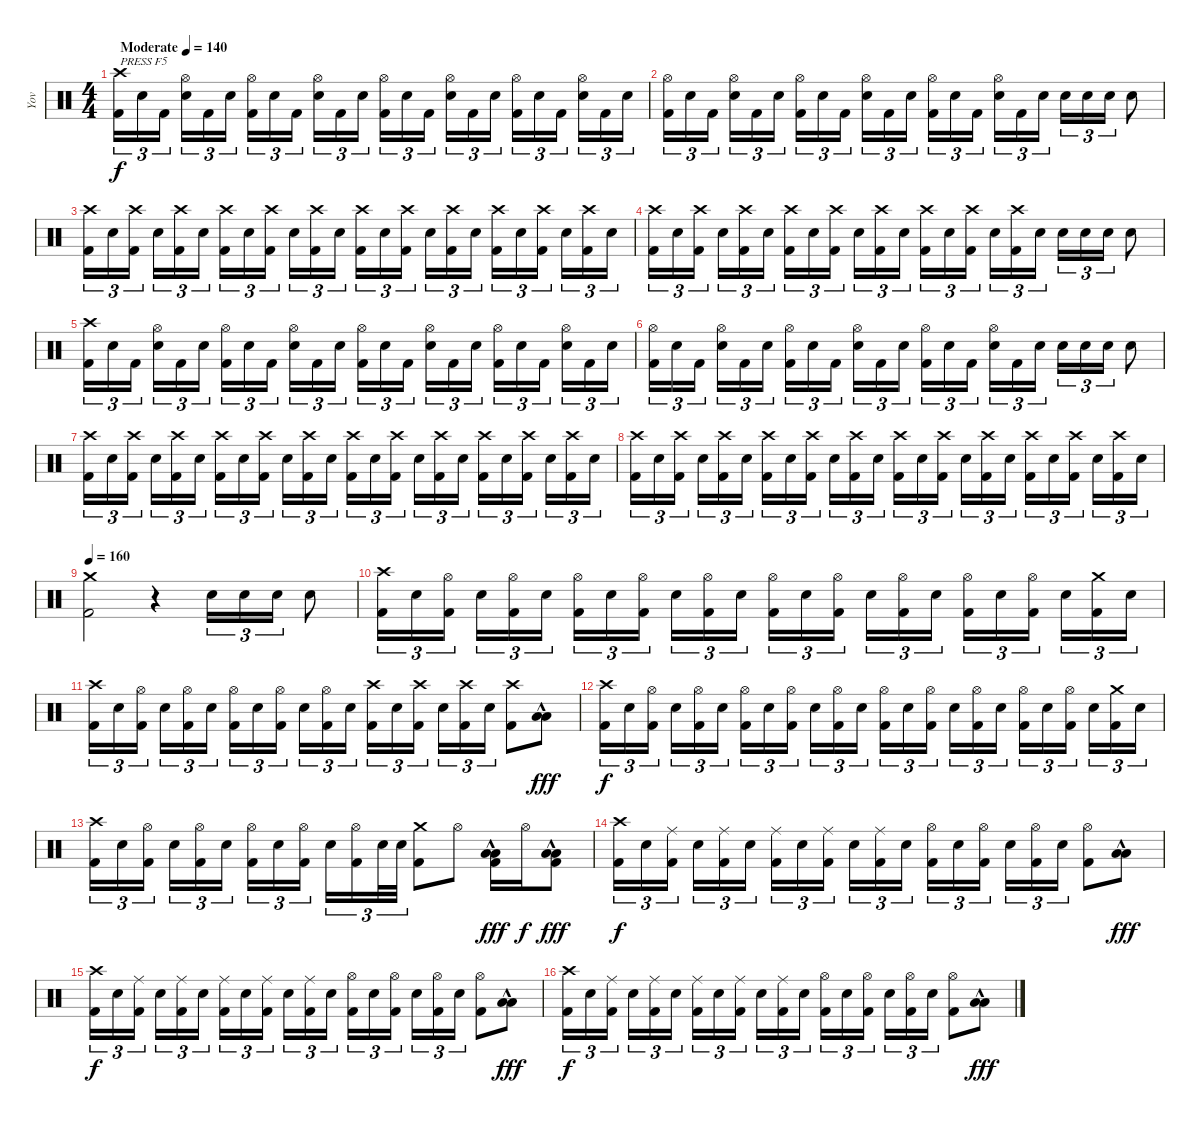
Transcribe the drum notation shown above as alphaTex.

\track ("Yov" "Yov") {instrument percussion}
\staff {score}
\articulation defaults
\ts (4 4)
\tempo (140 "Moderate")
\clef neutral
\ks c
("Crash high (hit)" "Kick (hit) 2").16{tu (3 2) txt "PRESS F5" dy f} "Electric Snare (hit)".16{tu (3 2)} "Kick (hit) 2".16{tu (3 2) beam splitsecondary} ("Hi-Hat (open)" "Electric Snare (hit)").16{tu (3 2)} "Kick (hit) 2".16{tu (3 2)} "Electric Snare (hit)".16{tu (3 2)} ("Hi-Hat (open)" "Kick (hit) 2").16{tu (3 2)} "Electric Snare (hit)".16{tu (3 2)} "Kick (hit) 2".16{tu (3 2) beam splitsecondary} ("Hi-Hat (open)" "Electric Snare (hit)").16{tu (3 2)} "Kick (hit) 2".16{tu (3 2)} "Electric Snare (hit)".16{tu (3 2)} ("Hi-Hat (open)" "Kick (hit) 2").16{tu (3 2)} "Electric Snare (hit)".16{tu (3 2)} "Kick (hit) 2".16{tu (3 2) beam splitsecondary} ("Hi-Hat (open)" "Electric Snare (hit)").16{tu (3 2)} "Kick (hit) 2".16{tu (3 2)} "Electric Snare (hit)".16{tu (3 2)} ("Hi-Hat (open)" "Kick (hit) 2").16{tu (3 2)} "Electric Snare (hit)".16{tu (3 2)} "Kick (hit) 2".16{tu (3 2) beam splitsecondary} ("Hi-Hat (open)" "Electric Snare (hit)").16{tu (3 2)} "Kick (hit) 2".16{tu (3 2)} "Electric Snare (hit)".16{tu (3 2)} |
("Hi-Hat (open)" "Kick (hit) 2").16{tu (3 2)} "Electric Snare (hit)".16{tu (3 2)} "Kick (hit) 2".16{tu (3 2) beam splitsecondary} ("Hi-Hat (open)" "Electric Snare (hit)").16{tu (3 2)} "Kick (hit) 2".16{tu (3 2)} "Electric Snare (hit)".16{tu (3 2)} ("Hi-Hat (open)" "Kick (hit) 2").16{tu (3 2)} "Electric Snare (hit)".16{tu (3 2)} "Kick (hit) 2".16{tu (3 2) beam splitsecondary} ("Hi-Hat (open)" "Electric Snare (hit)").16{tu (3 2)} "Kick (hit) 2".16{tu (3 2)} "Electric Snare (hit)".16{tu (3 2)} ("Hi-Hat (open)" "Kick (hit) 2").16{tu (3 2)} "Electric Snare (hit)".16{tu (3 2)} "Kick (hit) 2".16{tu (3 2) beam splitsecondary} ("Hi-Hat (open)" "Electric Snare (hit)").16{tu (3 2)} "Kick (hit) 2".16{tu (3 2)} "Electric Snare (hit)".16{tu (3 2)} "Electric Snare (hit)".16{tu (3 2)} "Electric Snare (hit)".16{tu (3 2)} "Electric Snare (hit)".16{tu (3 2)} "Electric Snare (hit)".8 |
("Crash high (hit)" "Kick (hit) 2").16{tu (3 2)} "Electric Snare (hit)".16{tu (3 2)} ("Crash high (hit)" "Kick (hit) 2").16{tu (3 2) beam splitsecondary} "Electric Snare (hit)".16{tu (3 2)} ("Crash high (hit)" "Kick (hit) 2").16{tu (3 2)} "Electric Snare (hit)".16{tu (3 2)} ("Crash high (hit)" "Kick (hit) 2").16{tu (3 2)} "Electric Snare (hit)".16{tu (3 2)} ("Crash high (hit)" "Kick (hit) 2").16{tu (3 2) beam splitsecondary} "Electric Snare (hit)".16{tu (3 2)} ("Crash high (hit)" "Kick (hit) 2").16{tu (3 2)} "Electric Snare (hit)".16{tu (3 2)} ("Crash high (hit)" "Kick (hit) 2").16{tu (3 2)} "Electric Snare (hit)".16{tu (3 2)} ("Crash high (hit)" "Kick (hit) 2").16{tu (3 2) beam splitsecondary} "Electric Snare (hit)".16{tu (3 2)} ("Crash high (hit)" "Kick (hit) 2").16{tu (3 2)} "Electric Snare (hit)".16{tu (3 2)} ("Crash high (hit)" "Kick (hit) 2").16{tu (3 2)} "Electric Snare (hit)".16{tu (3 2)} ("Crash high (hit)" "Kick (hit) 2").16{tu (3 2) beam splitsecondary} "Electric Snare (hit)".16{tu (3 2)} ("Crash high (hit)" "Kick (hit) 2").16{tu (3 2)} "Electric Snare (hit)".16{tu (3 2)} |
("Crash high (hit)" "Kick (hit) 2").16{tu (3 2)} "Electric Snare (hit)".16{tu (3 2)} ("Crash high (hit)" "Kick (hit) 2").16{tu (3 2) beam splitsecondary} "Electric Snare (hit)".16{tu (3 2)} ("Crash high (hit)" "Kick (hit) 2").16{tu (3 2)} "Electric Snare (hit)".16{tu (3 2)} ("Crash high (hit)" "Kick (hit) 2").16{tu (3 2)} "Electric Snare (hit)".16{tu (3 2)} ("Crash high (hit)" "Kick (hit) 2").16{tu (3 2) beam splitsecondary} "Electric Snare (hit)".16{tu (3 2)} ("Crash high (hit)" "Kick (hit) 2").16{tu (3 2)} "Electric Snare (hit)".16{tu (3 2)} ("Crash high (hit)" "Kick (hit) 2").16{tu (3 2)} "Electric Snare (hit)".16{tu (3 2)} ("Crash high (hit)" "Kick (hit) 2").16{tu (3 2) beam splitsecondary} "Electric Snare (hit)".16{tu (3 2)} ("Crash high (hit)" "Kick (hit) 2").16{tu (3 2)} "Electric Snare (hit)".16{tu (3 2)} "Electric Snare (hit)".16{tu (3 2)} "Electric Snare (hit)".16{tu (3 2)} "Electric Snare (hit)".16{tu (3 2)} "Electric Snare (hit)".8 |
("Crash high (hit)" "Kick (hit) 2").16{tu (3 2)} "Electric Snare (hit)".16{tu (3 2)} "Kick (hit) 2".16{tu (3 2) beam splitsecondary} ("Hi-Hat (open)" "Electric Snare (hit)").16{tu (3 2)} "Kick (hit) 2".16{tu (3 2)} "Electric Snare (hit)".16{tu (3 2)} ("Hi-Hat (open)" "Kick (hit) 2").16{tu (3 2)} "Electric Snare (hit)".16{tu (3 2)} "Kick (hit) 2".16{tu (3 2) beam splitsecondary} ("Hi-Hat (open)" "Electric Snare (hit)").16{tu (3 2)} "Kick (hit) 2".16{tu (3 2)} "Electric Snare (hit)".16{tu (3 2)} ("Hi-Hat (open)" "Kick (hit) 2").16{tu (3 2)} "Electric Snare (hit)".16{tu (3 2)} "Kick (hit) 2".16{tu (3 2) beam splitsecondary} ("Hi-Hat (open)" "Electric Snare (hit)").16{tu (3 2)} "Kick (hit) 2".16{tu (3 2)} "Electric Snare (hit)".16{tu (3 2)} ("Hi-Hat (open)" "Kick (hit) 2").16{tu (3 2)} "Electric Snare (hit)".16{tu (3 2)} "Kick (hit) 2".16{tu (3 2) beam splitsecondary} ("Hi-Hat (open)" "Electric Snare (hit)").16{tu (3 2)} "Kick (hit) 2".16{tu (3 2)} "Electric Snare (hit)".16{tu (3 2)} |
("Hi-Hat (open)" "Kick (hit) 2").16{tu (3 2)} "Electric Snare (hit)".16{tu (3 2)} "Kick (hit) 2".16{tu (3 2) beam splitsecondary} ("Hi-Hat (open)" "Electric Snare (hit)").16{tu (3 2)} "Kick (hit) 2".16{tu (3 2)} "Electric Snare (hit)".16{tu (3 2)} ("Hi-Hat (open)" "Kick (hit) 2").16{tu (3 2)} "Electric Snare (hit)".16{tu (3 2)} "Kick (hit) 2".16{tu (3 2) beam splitsecondary} ("Hi-Hat (open)" "Electric Snare (hit)").16{tu (3 2)} "Kick (hit) 2".16{tu (3 2)} "Electric Snare (hit)".16{tu (3 2)} ("Hi-Hat (open)" "Kick (hit) 2").16{tu (3 2)} "Electric Snare (hit)".16{tu (3 2)} "Kick (hit) 2".16{tu (3 2) beam splitsecondary} ("Hi-Hat (open)" "Electric Snare (hit)").16{tu (3 2)} "Kick (hit) 2".16{tu (3 2)} "Electric Snare (hit)".16{tu (3 2)} "Electric Snare (hit)".16{tu (3 2)} "Electric Snare (hit)".16{tu (3 2)} "Electric Snare (hit)".16{tu (3 2)} "Electric Snare (hit)".8 |
("Crash high (hit)" "Kick (hit) 2").16{tu (3 2)} "Electric Snare (hit)".16{tu (3 2)} ("Crash high (hit)" "Kick (hit) 2").16{tu (3 2) beam splitsecondary} "Electric Snare (hit)".16{tu (3 2)} ("Crash high (hit)" "Kick (hit) 2").16{tu (3 2)} "Electric Snare (hit)".16{tu (3 2)} ("Crash high (hit)" "Kick (hit) 2").16{tu (3 2)} "Electric Snare (hit)".16{tu (3 2)} ("Crash high (hit)" "Kick (hit) 2").16{tu (3 2) beam splitsecondary} "Electric Snare (hit)".16{tu (3 2)} ("Crash high (hit)" "Kick (hit) 2").16{tu (3 2)} "Electric Snare (hit)".16{tu (3 2)} ("Crash high (hit)" "Kick (hit) 2").16{tu (3 2)} "Electric Snare (hit)".16{tu (3 2)} ("Crash high (hit)" "Kick (hit) 2").16{tu (3 2) beam splitsecondary} "Electric Snare (hit)".16{tu (3 2)} ("Crash high (hit)" "Kick (hit) 2").16{tu (3 2)} "Electric Snare (hit)".16{tu (3 2)} ("Crash high (hit)" "Kick (hit) 2").16{tu (3 2)} "Electric Snare (hit)".16{tu (3 2)} ("Crash high (hit)" "Kick (hit) 2").16{tu (3 2) beam splitsecondary} "Electric Snare (hit)".16{tu (3 2)} ("Crash high (hit)" "Kick (hit) 2").16{tu (3 2)} "Electric Snare (hit)".16{tu (3 2)} |
("Crash high (hit)" "Kick (hit) 2").16{tu (3 2)} "Electric Snare (hit)".16{tu (3 2)} ("Crash high (hit)" "Kick (hit) 2").16{tu (3 2) beam splitsecondary} "Electric Snare (hit)".16{tu (3 2)} ("Crash high (hit)" "Kick (hit) 2").16{tu (3 2)} "Electric Snare (hit)".16{tu (3 2)} ("Crash high (hit)" "Kick (hit) 2").16{tu (3 2)} "Electric Snare (hit)".16{tu (3 2)} ("Crash high (hit)" "Kick (hit) 2").16{tu (3 2) beam splitsecondary} "Electric Snare (hit)".16{tu (3 2)} ("Crash high (hit)" "Kick (hit) 2").16{tu (3 2)} "Electric Snare (hit)".16{tu (3 2)} ("Crash high (hit)" "Kick (hit) 2").16{tu (3 2)} "Electric Snare (hit)".16{tu (3 2)} ("Crash high (hit)" "Kick (hit) 2").16{tu (3 2) beam splitsecondary} "Electric Snare (hit)".16{tu (3 2)} ("Crash high (hit)" "Kick (hit) 2").16{tu (3 2)} "Electric Snare (hit)".16{tu (3 2)} ("Crash high (hit)" "Kick (hit) 2").16{tu (3 2)} "Electric Snare (hit)".16{tu (3 2)} ("Crash high (hit)" "Kick (hit) 2").16{tu (3 2) beam splitsecondary} "Electric Snare (hit)".16{tu (3 2)} ("Crash high (hit)" "Kick (hit) 2").16{tu (3 2)} "Electric Snare (hit)".16{tu (3 2)} |
\tempo 160
("Crash medium (hit)" "Kick (hit) 2").2 r.4 "Electric Snare (hit)".16{tu (3 2)} "Electric Snare (hit)".16{tu (3 2)} "Electric Snare (hit)".16{tu (3 2)} "Electric Snare (hit)".8 |
("Crash high (hit)" "Kick (hit) 2").16{tu (3 2)} "Electric Snare (hit)".16{tu (3 2)} ("Hi-Hat (open)" "Kick (hit) 2").16{tu (3 2) beam splitsecondary} "Electric Snare (hit)".16{tu (3 2)} ("Hi-Hat (open)" "Kick (hit) 2").16{tu (3 2)} "Electric Snare (hit)".16{tu (3 2)} ("Hi-Hat (open)" "Kick (hit) 2").16{tu (3 2)} "Electric Snare (hit)".16{tu (3 2)} ("Hi-Hat (open)" "Kick (hit) 2").16{tu (3 2) beam splitsecondary} "Electric Snare (hit)".16{tu (3 2)} ("Hi-Hat (open)" "Kick (hit) 2").16{tu (3 2)} "Electric Snare (hit)".16{tu (3 2)} ("Hi-Hat (open)" "Kick (hit) 2").16{tu (3 2)} "Electric Snare (hit)".16{tu (3 2)} ("Hi-Hat (open)" "Kick (hit) 2").16{tu (3 2) beam splitsecondary} "Electric Snare (hit)".16{tu (3 2)} ("Hi-Hat (open)" "Kick (hit) 2").16{tu (3 2)} "Electric Snare (hit)".16{tu (3 2)} ("Hi-Hat (open)" "Kick (hit) 2").16{tu (3 2)} "Electric Snare (hit)".16{tu (3 2)} ("Hi-Hat (open)" "Kick (hit) 2").16{tu (3 2) beam splitsecondary} "Electric Snare (hit)".16{tu (3 2)} ("Crash medium (hit)" "Kick (hit) 2").16{tu (3 2)} "Electric Snare (hit)".16{tu (3 2)} |
("Crash high (hit)" "Kick (hit) 2").16{tu (3 2)} "Electric Snare (hit)".16{tu (3 2)} ("Hi-Hat (open)" "Kick (hit) 2").16{tu (3 2) beam splitsecondary} "Electric Snare (hit)".16{tu (3 2)} ("Hi-Hat (open)" "Kick (hit) 2").16{tu (3 2)} "Electric Snare (hit)".16{tu (3 2)} ("Hi-Hat (open)" "Kick (hit) 2").16{tu (3 2)} "Electric Snare (hit)".16{tu (3 2)} ("Hi-Hat (open)" "Kick (hit) 2").16{tu (3 2) beam splitsecondary} "Electric Snare (hit)".16{tu (3 2)} ("Hi-Hat (open)" "Kick (hit) 2").16{tu (3 2)} "Electric Snare (hit)".16{tu (3 2)} ("Crash high (hit)" "Kick (hit) 2").16{tu (3 2)} "Electric Snare (hit)".16{tu (3 2)} ("Crash high (hit)" "Kick (hit) 2").16{tu (3 2) beam splitsecondary} "Electric Snare (hit)".16{tu (3 2)} ("Crash high (hit)" "Kick (hit) 2").16{tu (3 2)} "Electric Snare (hit)".16{tu (3 2)} ("Crash high (hit)" "Kick (hit) 2").8 ("Low Tom (hit)"{hac} "Low Tom (hit)"{hac}).8{dy fff} |
("Crash high (hit)" "Kick (hit) 2").16{tu (3 2) dy f} "Electric Snare (hit)".16{tu (3 2)} ("Hi-Hat (open)" "Kick (hit) 2").16{tu (3 2) beam splitsecondary} "Electric Snare (hit)".16{tu (3 2)} ("Hi-Hat (open)" "Kick (hit) 2").16{tu (3 2)} "Electric Snare (hit)".16{tu (3 2)} ("Hi-Hat (open)" "Kick (hit) 2").16{tu (3 2)} "Electric Snare (hit)".16{tu (3 2)} ("Hi-Hat (open)" "Kick (hit) 2").16{tu (3 2) beam splitsecondary} "Electric Snare (hit)".16{tu (3 2)} ("Hi-Hat (open)" "Kick (hit) 2").16{tu (3 2)} "Electric Snare (hit)".16{tu (3 2)} ("Hi-Hat (open)" "Kick (hit) 2").16{tu (3 2)} "Electric Snare (hit)".16{tu (3 2)} ("Hi-Hat (open)" "Kick (hit) 2").16{tu (3 2) beam splitsecondary} "Electric Snare (hit)".16{tu (3 2)} ("Hi-Hat (open)" "Kick (hit) 2").16{tu (3 2)} "Electric Snare (hit)".16{tu (3 2)} ("Hi-Hat (open)" "Kick (hit) 2").16{tu (3 2)} "Electric Snare (hit)".16{tu (3 2)} ("Hi-Hat (open)" "Kick (hit) 2").16{tu (3 2) beam splitsecondary} "Electric Snare (hit)".16{tu (3 2)} ("Crash medium (hit)" "Kick (hit) 2").16{tu (3 2)} "Electric Snare (hit)".16{tu (3 2)} |
("Crash high (hit)" "Kick (hit) 2").16{tu (3 2)} "Electric Snare (hit)".16{tu (3 2)} ("Hi-Hat (open)" "Kick (hit) 2").16{tu (3 2) beam splitsecondary} "Electric Snare (hit)".16{tu (3 2)} ("Hi-Hat (open)" "Kick (hit) 2").16{tu (3 2)} "Electric Snare (hit)".16{tu (3 2)} ("Hi-Hat (open)" "Kick (hit) 2").16{tu (3 2)} "Electric Snare (hit)".16{tu (3 2)} ("Hi-Hat (open)" "Kick (hit) 2").16{tu (3 2) beam splitsecondary} "Electric Snare (hit)".16{tu (3 2)} ("Hi-Hat (open)" "Kick (hit) 2").16{tu (3 2)} "Electric Snare (hit)".32{tu (3 2)} "Electric Snare (hit)".32{tu (3 2)} ("Crash medium (hit)" "Kick (hit) 2").8 "Hi-Hat (open)".8 ("Low Tom (hit)"{hac} "Low Tom (hit)"{hac} "Kick (hit) 2").16{dy fff} "Hi-Hat (open)".16{dy f} ("Low Tom (hit)"{hac} "Low Tom (hit)"{hac} "Kick (hit) 2").8{dy fff} |
("Crash high (hit)" "Kick (hit) 2").16{tu (3 2) dy f} "Electric Snare (hit)".16{tu (3 2)} ("Ride (middle)" "Kick (hit) 2").16{tu (3 2) beam splitsecondary} "Electric Snare (hit)".16{tu (3 2)} ("Ride (middle)" "Kick (hit) 2").16{tu (3 2)} "Electric Snare (hit)".16{tu (3 2)} ("Ride (middle)" "Kick (hit) 2").16{tu (3 2)} "Electric Snare (hit)".16{tu (3 2)} ("Ride (middle)" "Kick (hit) 2").16{tu (3 2) beam splitsecondary} "Electric Snare (hit)".16{tu (3 2)} ("Ride (middle)" "Kick (hit) 2").16{tu (3 2)} "Electric Snare (hit)".16{tu (3 2)} ("Hi-Hat (open)" "Kick (hit) 2").16{tu (3 2)} "Electric Snare (hit)".16{tu (3 2)} ("Hi-Hat (open)" "Kick (hit) 2").16{tu (3 2) beam splitsecondary} "Electric Snare (hit)".16{tu (3 2)} ("Hi-Hat (open)" "Kick (hit) 2").16{tu (3 2)} "Electric Snare (hit)".16{tu (3 2)} ("Hi-Hat (open)" "Kick (hit) 2").8 ("Low Tom (hit)"{hac} "Low Tom (hit)"{hac}).8{dy fff} |
("Crash high (hit)" "Kick (hit) 2").16{tu (3 2) dy f} "Electric Snare (hit)".16{tu (3 2)} ("Ride (middle)" "Kick (hit) 2").16{tu (3 2) beam splitsecondary} "Electric Snare (hit)".16{tu (3 2)} ("Ride (middle)" "Kick (hit) 2").16{tu (3 2)} "Electric Snare (hit)".16{tu (3 2)} ("Ride (middle)" "Kick (hit) 2").16{tu (3 2)} "Electric Snare (hit)".16{tu (3 2)} ("Ride (middle)" "Kick (hit) 2").16{tu (3 2) beam splitsecondary} "Electric Snare (hit)".16{tu (3 2)} ("Ride (middle)" "Kick (hit) 2").16{tu (3 2)} "Electric Snare (hit)".16{tu (3 2)} ("Hi-Hat (open)" "Kick (hit) 2").16{tu (3 2)} "Electric Snare (hit)".16{tu (3 2)} ("Hi-Hat (open)" "Kick (hit) 2").16{tu (3 2) beam splitsecondary} "Electric Snare (hit)".16{tu (3 2)} ("Hi-Hat (open)" "Kick (hit) 2").16{tu (3 2)} "Electric Snare (hit)".16{tu (3 2)} ("Hi-Hat (open)" "Kick (hit) 2").8 ("Low Tom (hit)"{hac} "Low Tom (hit)"{hac}).8{dy fff} |
("Crash high (hit)" "Kick (hit) 2").16{tu (3 2) dy f} "Electric Snare (hit)".16{tu (3 2)} ("Ride (middle)" "Kick (hit) 2").16{tu (3 2) beam splitsecondary} "Electric Snare (hit)".16{tu (3 2)} ("Ride (middle)" "Kick (hit) 2").16{tu (3 2)} "Electric Snare (hit)".16{tu (3 2)} ("Ride (middle)" "Kick (hit) 2").16{tu (3 2)} "Electric Snare (hit)".16{tu (3 2)} ("Ride (middle)" "Kick (hit) 2").16{tu (3 2) beam splitsecondary} "Electric Snare (hit)".16{tu (3 2)} ("Ride (middle)" "Kick (hit) 2").16{tu (3 2)} "Electric Snare (hit)".16{tu (3 2)} ("Hi-Hat (open)" "Kick (hit) 2").16{tu (3 2)} "Electric Snare (hit)".16{tu (3 2)} ("Hi-Hat (open)" "Kick (hit) 2").16{tu (3 2) beam splitsecondary} "Electric Snare (hit)".16{tu (3 2)} ("Hi-Hat (open)" "Kick (hit) 2").16{tu (3 2)} "Electric Snare (hit)".16{tu (3 2)} ("Hi-Hat (open)" "Kick (hit) 2").8 ("Low Tom (hit)"{hac} "Low Tom (hit)"{hac}).8{dy fff}
